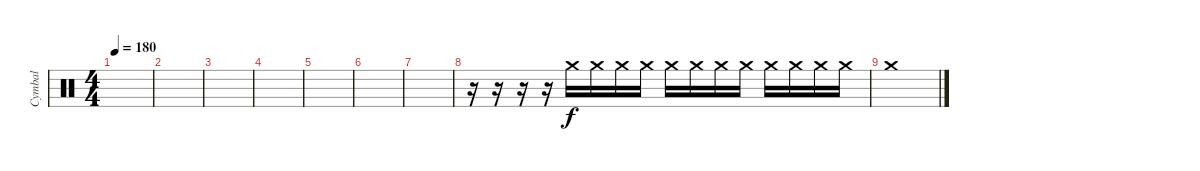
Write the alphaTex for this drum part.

\track ("Cymbal" "Cymbal") {instrument percussion}
\staff {score}
\articulation defaults
\ts (4 4)
\tempo 180
\clef neutral
\ks c
|
|
|
|
|
|
|
r.16 r.16 r.16 r.16 "Crash medium (hit)".16{volume 1} "Crash medium (hit)".16{volume 2} "Crash medium (hit)".16{volume 3} "Crash medium (hit)".16{volume 4} "Crash medium (hit)".16{volume 5} "Crash medium (hit)".16{volume 6} "Crash medium (hit)".16{volume 7} "Crash medium (hit)".16{volume 9} "Crash medium (hit)".16{volume 11} "Crash medium (hit)".16{volume 12} "Crash medium (hit)".16{volume 13} "Crash medium (hit)".16{volume 14} |
"Crash medium (hit)".1{volume 16}
